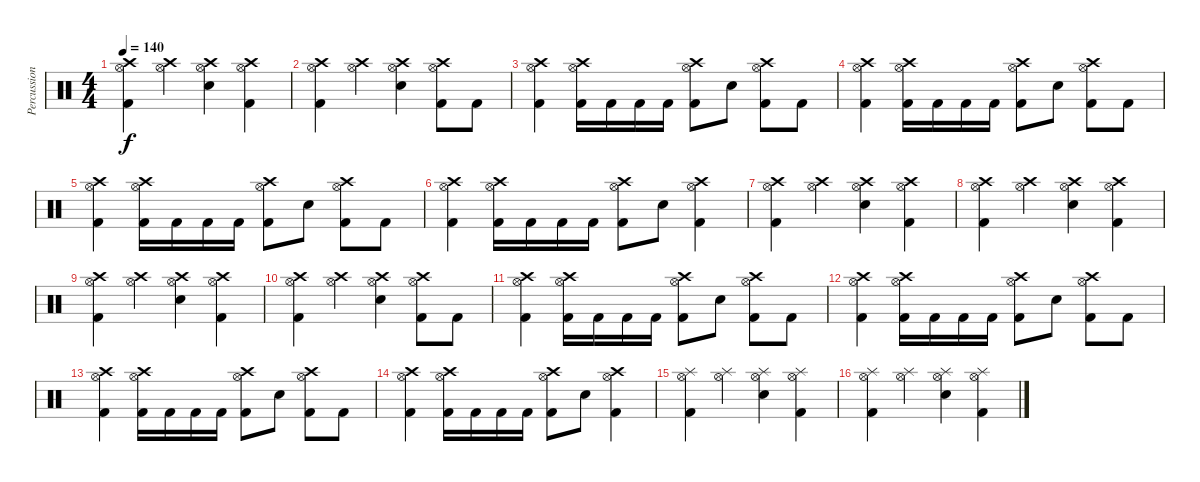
\track ("Percussion" "Percussion") {instrument percussion}
\staff {score}
\articulation defaults
\ts (4 4)
\tempo 140
\clef neutral
\ks c
("Crash high (hit)" "Hi-Hat (open)" "Kick (hit) 2").4{dy f} ("Crash high (hit)" "Hi-Hat (open)").4 ("Crash high (hit)" "Hi-Hat (open)" "Snare (hit) 2").4 ("Crash high (hit)" "Hi-Hat (open)" "Kick (hit) 2").4 |
("Crash high (hit)" "Hi-Hat (open)" "Kick (hit) 2").4 ("Crash high (hit)" "Hi-Hat (open)").4 ("Crash high (hit)" "Hi-Hat (open)" "Snare (hit) 2").4 ("Crash high (hit)" "Hi-Hat (open)" "Kick (hit) 2").8 "Kick (hit) 2".8 |
("Crash high (hit)" "Hi-Hat (open)" "Kick (hit) 2").4 ("Crash high (hit)" "Hi-Hat (open)" "Kick (hit) 2").16 "Kick (hit) 2".16 "Kick (hit) 2".16 "Kick (hit) 2".16 ("Crash high (hit)" "Hi-Hat (open)" "Kick (hit) 2").8 "Snare (hit) 2".8 ("Crash high (hit)" "Hi-Hat (open)" "Kick (hit) 2").8 "Kick (hit) 2".8 |
("Crash high (hit)" "Hi-Hat (open)" "Kick (hit) 2").4 ("Crash high (hit)" "Hi-Hat (open)" "Kick (hit) 2").16 "Kick (hit) 2".16 "Kick (hit) 2".16 "Kick (hit) 2".16 ("Crash high (hit)" "Hi-Hat (open)" "Kick (hit) 2").8 "Snare (hit) 2".8 ("Crash high (hit)" "Hi-Hat (open)" "Kick (hit) 2").8 "Kick (hit) 2".8 |
("Crash high (hit)" "Hi-Hat (open)" "Kick (hit) 2").4 ("Crash high (hit)" "Hi-Hat (open)" "Kick (hit) 2").16 "Kick (hit) 2".16 "Kick (hit) 2".16 "Kick (hit) 2".16 ("Crash high (hit)" "Hi-Hat (open)" "Kick (hit) 2").8 "Snare (hit) 2".8 ("Crash high (hit)" "Hi-Hat (open)" "Kick (hit) 2").8 "Kick (hit) 2".8 |
("Crash high (hit)" "Hi-Hat (open)" "Kick (hit) 2").4 ("Crash high (hit)" "Hi-Hat (open)" "Kick (hit) 2").16 "Kick (hit) 2".16 "Kick (hit) 2".16 "Kick (hit) 2".16 ("Crash high (hit)" "Hi-Hat (open)" "Kick (hit) 2").8 "Snare (hit) 2".8 ("Crash high (hit)" "Hi-Hat (open)" "Kick (hit) 2").4 |
("Crash high (hit)" "Hi-Hat (open)" "Kick (hit) 2").4 ("Crash high (hit)" "Hi-Hat (open)").4 ("Crash high (hit)" "Hi-Hat (open)" "Snare (hit) 2").4 ("Crash high (hit)" "Hi-Hat (open)" "Kick (hit) 2").4 |
("Crash high (hit)" "Hi-Hat (open)" "Kick (hit) 2").4 ("Crash high (hit)" "Hi-Hat (open)").4 ("Crash high (hit)" "Hi-Hat (open)" "Snare (hit) 2").4 ("Crash high (hit)" "Hi-Hat (open)" "Kick (hit) 2").4 |
("Crash high (hit)" "Hi-Hat (open)" "Kick (hit) 2").4 ("Crash high (hit)" "Hi-Hat (open)").4 ("Crash high (hit)" "Hi-Hat (open)" "Snare (hit) 2").4 ("Crash high (hit)" "Hi-Hat (open)" "Kick (hit) 2").4 |
("Crash high (hit)" "Hi-Hat (open)" "Kick (hit) 2").4 ("Crash high (hit)" "Hi-Hat (open)").4 ("Crash high (hit)" "Hi-Hat (open)" "Snare (hit) 2").4 ("Crash high (hit)" "Hi-Hat (open)" "Kick (hit) 2").8 "Kick (hit) 2".8 |
("Crash high (hit)" "Hi-Hat (open)" "Kick (hit) 2").4 ("Crash high (hit)" "Hi-Hat (open)" "Kick (hit) 2").16 "Kick (hit) 2".16 "Kick (hit) 2".16 "Kick (hit) 2".16 ("Crash high (hit)" "Hi-Hat (open)" "Kick (hit) 2").8 "Snare (hit) 2".8 ("Crash high (hit)" "Hi-Hat (open)" "Kick (hit) 2").8 "Kick (hit) 2".8 |
("Crash high (hit)" "Hi-Hat (open)" "Kick (hit) 2").4 ("Crash high (hit)" "Hi-Hat (open)" "Kick (hit) 2").16 "Kick (hit) 2".16 "Kick (hit) 2".16 "Kick (hit) 2".16 ("Crash high (hit)" "Hi-Hat (open)" "Kick (hit) 2").8 "Snare (hit) 2".8 ("Crash high (hit)" "Hi-Hat (open)" "Kick (hit) 2").8 "Kick (hit) 2".8 |
("Crash high (hit)" "Hi-Hat (open)" "Kick (hit) 2").4 ("Crash high (hit)" "Hi-Hat (open)" "Kick (hit) 2").16 "Kick (hit) 2".16 "Kick (hit) 2".16 "Kick (hit) 2".16 ("Crash high (hit)" "Hi-Hat (open)" "Kick (hit) 2").8 "Snare (hit) 2".8 ("Crash high (hit)" "Hi-Hat (open)" "Kick (hit) 2").8 "Kick (hit) 2".8 |
("Crash high (hit)" "Hi-Hat (open)" "Kick (hit) 2").4 ("Crash high (hit)" "Hi-Hat (open)" "Kick (hit) 2").16 "Kick (hit) 2".16 "Kick (hit) 2".16 "Kick (hit) 2".16 ("Crash high (hit)" "Hi-Hat (open)" "Kick (hit) 2").8 "Snare (hit) 2".8 ("Crash high (hit)" "Hi-Hat (open)" "Kick (hit) 2").4 |
("Splash (hit)" "Hi-Hat (open)" "Kick (hit) 2").4 ("Splash (hit)" "Hi-Hat (open)").4 ("Splash (hit)" "Hi-Hat (open)" "Snare (hit) 2").4 ("Splash (hit)" "Hi-Hat (open)" "Kick (hit) 2").4 |
("Splash (hit)" "Hi-Hat (open)" "Kick (hit) 2").4 ("Splash (hit)" "Hi-Hat (open)").4 ("Splash (hit)" "Hi-Hat (open)" "Snare (hit) 2").4 ("Splash (hit)" "Hi-Hat (open)" "Kick (hit) 2").4
